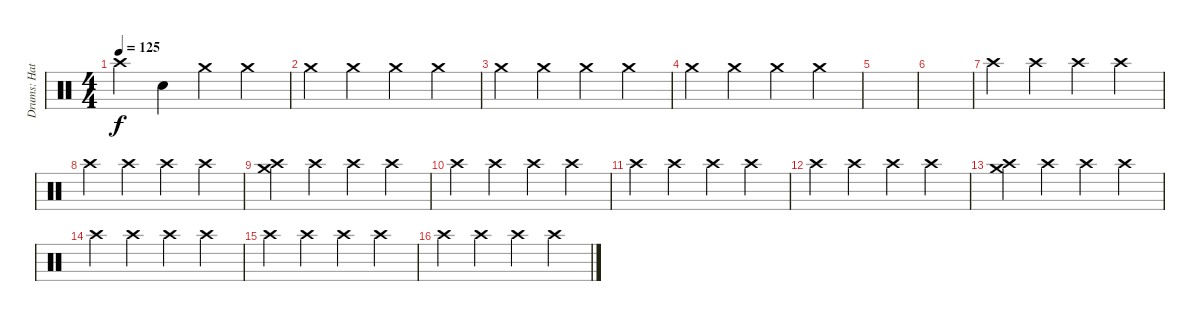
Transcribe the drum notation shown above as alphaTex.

\track ("Drums: Hats, Etc" "Drums: Hat") {instrument percussion}
\staff {score}
\articulation defaults
\ts (4 4)
\tempo 125
\clef neutral
\ks c "Crash high (hit)".4{dy f} "Snare (hit)".4 "Crash medium (hit)".4 "Crash medium (hit)".4
|
"Crash medium (hit)".4 "Crash medium (hit)".4 "Crash medium (hit)".4 "Crash medium (hit)".4 |
"Crash medium (hit)".4 "Crash medium (hit)".4 "Crash medium (hit)".4 "Crash medium (hit)".4 |
"Crash medium (hit)".4 "Crash medium (hit)".4 "Crash medium (hit)".4 "Crash medium (hit)".4 |
|
|
"Crash high (hit)".4 "Crash high (hit)".4 "Crash high (hit)".4 "Crash high (hit)".4 |
"Crash high (hit)".4 "Crash high (hit)".4 "Crash high (hit)".4 "Crash high (hit)".4 |
("Crash medium (hit)" "Crash high (hit)").4 "Crash high (hit)".4 "Crash high (hit)".4 "Crash high (hit)".4 |
"Crash high (hit)".4 "Crash high (hit)".4 "Crash high (hit)".4 "Crash high (hit)".4 |
"Crash high (hit)".4 "Crash high (hit)".4 "Crash high (hit)".4 "Crash high (hit)".4 |
"Crash high (hit)".4 "Crash high (hit)".4 "Crash high (hit)".4 "Crash high (hit)".4 |
("Crash medium (hit)" "Crash high (hit)").4 "Crash high (hit)".4 "Crash high (hit)".4 "Crash high (hit)".4 |
"Crash high (hit)".4 "Crash high (hit)".4 "Crash high (hit)".4 "Crash high (hit)".4 |
"Crash high (hit)".4 "Crash high (hit)".4 "Crash high (hit)".4 "Crash high (hit)".4 |
"Crash high (hit)".4 "Crash high (hit)".4 "Crash high (hit)".4 "Crash high (hit)".4
